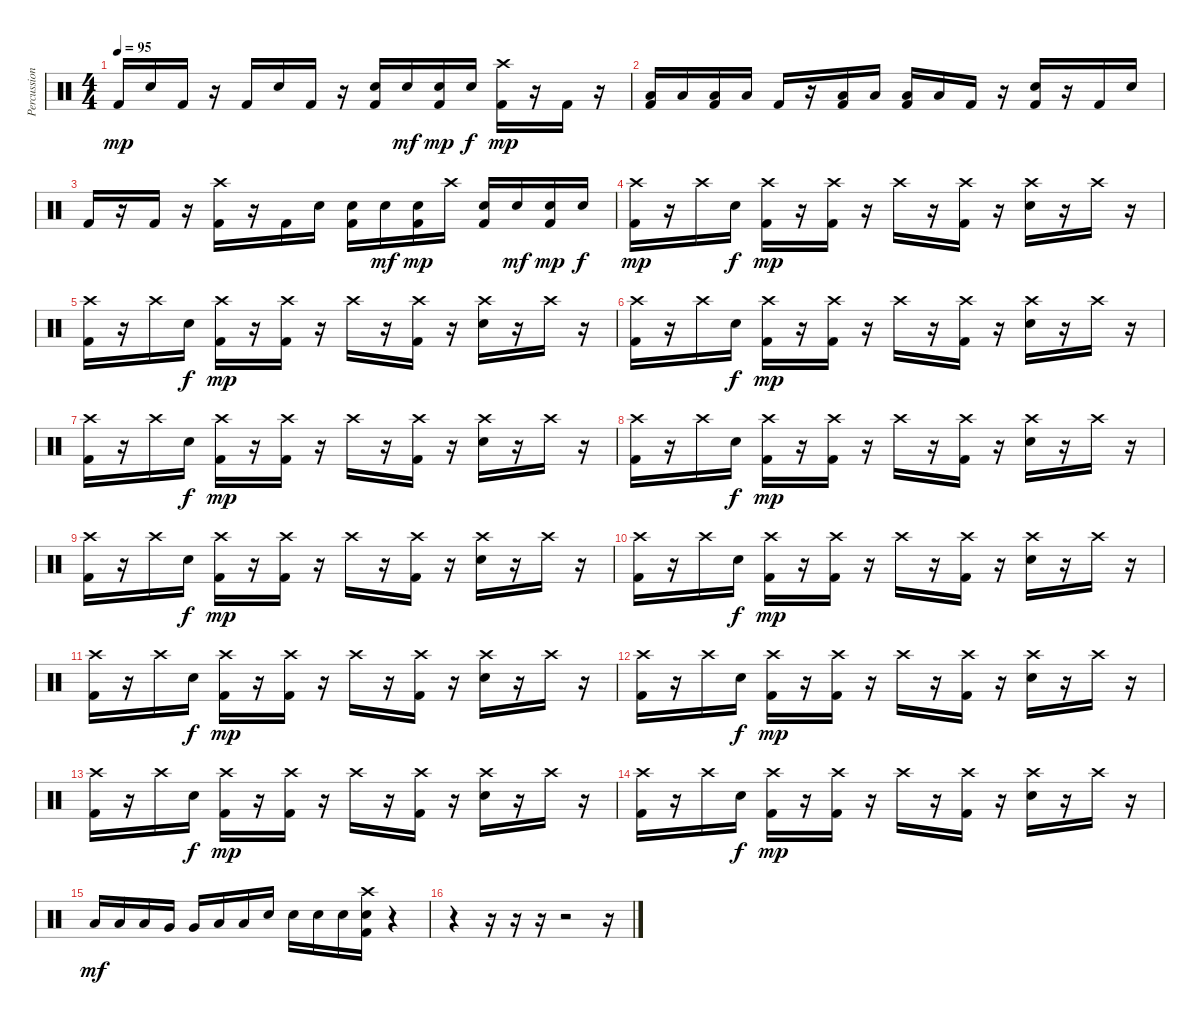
\track ("Percussions" "Percussion") {instrument percussion}
\staff {score}
\articulation defaults
\ts (4 4)
\tempo 95
\clef neutral
\ks c "Kick (hit) 2".16{dy mp} "Snare (hit) 2".16 "Kick (hit) 2".16
r.16 "Kick (hit) 2".16 "Snare (hit) 2".16 "Kick (hit) 2".16 r.16 ("Snare (hit) 2" "Kick (hit) 2").16 "Snare (hit) 2".16{dy mf} ("Snare (hit) 2" "Kick (hit) 2").16{dy mp} "Snare (hit) 2".16{dy f} ("Crash high (hit)" "Kick (hit) 2").16{dy mp} r.16 "Kick (hit) 2".16 r.16 |
("Low Tom (hit)" "Kick (hit) 2").16 "Low Tom (hit)".16 ("Low Tom (hit)" "Kick (hit) 2").16 "Low Tom (hit)".16 "Kick (hit) 2".16 r.16 ("Low Tom (hit)" "Kick (hit) 2").16 "Low Tom (hit)".16 ("Low Tom (hit)" "Kick (hit) 2").16 "Low Tom (hit)".16 "Kick (hit) 2".16 r.16 ("Snare (hit) 2" "Kick (hit) 2").16 r.16 "Kick (hit) 2".16 "Snare (hit) 2".16 |
"Kick (hit) 2".16 r.16 "Kick (hit) 2".16 r.16 ("Crash high (hit)" "Kick (hit) 2").16 r.16 "Kick (hit) 2".16 "Snare (hit) 2".16 ("Snare (hit) 2" "Kick (hit) 2").16 "Snare (hit) 2".16{dy mf} ("Snare (hit) 2" "Kick (hit) 2").16{dy mp} "Crash high (hit)".16 ("Snare (hit) 2" "Kick (hit) 2").16 "Snare (hit) 2".16{dy mf} ("Snare (hit) 2" "Kick (hit) 2").16{dy mp} "Snare (hit) 2".16{dy f} |
("Crash high (hit)" "Kick (hit) 2").16{dy mp} r.16 "Crash high (hit)".16 "Snare (hit) 2".16{dy f} ("Crash high (hit)" "Kick (hit) 2").16{dy mp} r.16 ("Crash high (hit)" "Kick (hit) 2").16 r.16 "Crash high (hit)".16 r.16 ("Crash high (hit)" "Kick (hit) 2").16 r.16 ("Crash high (hit)" "Snare (hit) 2").16 r.16 "Crash high (hit)".16 r.16 |
("Crash high (hit)" "Kick (hit) 2").16 r.16 "Crash high (hit)".16 "Snare (hit) 2".16{dy f} ("Crash high (hit)" "Kick (hit) 2").16{dy mp} r.16 ("Crash high (hit)" "Kick (hit) 2").16 r.16 "Crash high (hit)".16 r.16 ("Crash high (hit)" "Kick (hit) 2").16 r.16 ("Crash high (hit)" "Snare (hit) 2").16 r.16 "Crash high (hit)".16 r.16 |
("Crash high (hit)" "Kick (hit) 2").16 r.16 "Crash high (hit)".16 "Snare (hit) 2".16{dy f} ("Crash high (hit)" "Kick (hit) 2").16{dy mp} r.16 ("Crash high (hit)" "Kick (hit) 2").16 r.16 "Crash high (hit)".16 r.16 ("Crash high (hit)" "Kick (hit) 2").16 r.16 ("Crash high (hit)" "Snare (hit) 2").16 r.16 "Crash high (hit)".16 r.16 |
("Crash high (hit)" "Kick (hit) 2").16 r.16 "Crash high (hit)".16 "Snare (hit) 2".16{dy f} ("Crash high (hit)" "Kick (hit) 2").16{dy mp} r.16 ("Crash high (hit)" "Kick (hit) 2").16 r.16 "Crash high (hit)".16 r.16 ("Crash high (hit)" "Kick (hit) 2").16 r.16 ("Crash high (hit)" "Snare (hit) 2").16 r.16 "Crash high (hit)".16 r.16 |
("Crash high (hit)" "Kick (hit) 2").16 r.16 "Crash high (hit)".16 "Snare (hit) 2".16{dy f} ("Crash high (hit)" "Kick (hit) 2").16{dy mp} r.16 ("Crash high (hit)" "Kick (hit) 2").16 r.16 "Crash high (hit)".16 r.16 ("Crash high (hit)" "Kick (hit) 2").16 r.16 ("Crash high (hit)" "Snare (hit) 2").16 r.16 "Crash high (hit)".16 r.16 |
("Crash high (hit)" "Kick (hit) 2").16 r.16 "Crash high (hit)".16 "Snare (hit) 2".16{dy f} ("Crash high (hit)" "Kick (hit) 2").16{dy mp} r.16 ("Crash high (hit)" "Kick (hit) 2").16 r.16 "Crash high (hit)".16 r.16 ("Crash high (hit)" "Kick (hit) 2").16 r.16 ("Crash high (hit)" "Snare (hit) 2").16 r.16 "Crash high (hit)".16 r.16 |
("Crash high (hit)" "Kick (hit) 2").16 r.16 "Crash high (hit)".16 "Snare (hit) 2".16{dy f} ("Crash high (hit)" "Kick (hit) 2").16{dy mp} r.16 ("Crash high (hit)" "Kick (hit) 2").16 r.16 "Crash high (hit)".16 r.16 ("Crash high (hit)" "Kick (hit) 2").16 r.16 ("Crash high (hit)" "Snare (hit) 2").16 r.16 "Crash high (hit)".16 r.16 |
("Crash high (hit)" "Kick (hit) 2").16 r.16 "Crash high (hit)".16 "Snare (hit) 2".16{dy f} ("Crash high (hit)" "Kick (hit) 2").16{dy mp} r.16 ("Crash high (hit)" "Kick (hit) 2").16 r.16 "Crash high (hit)".16 r.16 ("Crash high (hit)" "Kick (hit) 2").16 r.16 ("Crash high (hit)" "Snare (hit) 2").16 r.16 "Crash high (hit)".16 r.16 |
("Crash high (hit)" "Kick (hit) 2").16 r.16 "Crash high (hit)".16 "Snare (hit) 2".16{dy f} ("Crash high (hit)" "Kick (hit) 2").16{dy mp} r.16 ("Crash high (hit)" "Kick (hit) 2").16 r.16 "Crash high (hit)".16 r.16 ("Crash high (hit)" "Kick (hit) 2").16 r.16 ("Crash high (hit)" "Snare (hit) 2").16 r.16 "Crash high (hit)".16 r.16 |
("Crash high (hit)" "Kick (hit) 2").16 r.16 "Crash high (hit)".16 "Snare (hit) 2".16{dy f} ("Crash high (hit)" "Kick (hit) 2").16{dy mp} r.16 ("Crash high (hit)" "Kick (hit) 2").16 r.16 "Crash high (hit)".16 r.16 ("Crash high (hit)" "Kick (hit) 2").16 r.16 ("Crash high (hit)" "Snare (hit) 2").16 r.16 "Crash high (hit)".16 r.16 |
("Crash high (hit)" "Kick (hit) 2").16 r.16 "Crash high (hit)".16 "Snare (hit) 2".16{dy f} ("Crash high (hit)" "Kick (hit) 2").16{dy mp} r.16 ("Crash high (hit)" "Kick (hit) 2").16 r.16 "Crash high (hit)".16 r.16 ("Crash high (hit)" "Kick (hit) 2").16 r.16 ("Crash high (hit)" "Snare (hit) 2").16 r.16 "Crash high (hit)".16 r.16 |
"Low Tom (hit)".16{dy mf} "Low Tom (hit)".16 "Low Tom (hit)".16 "Very Low Tom (hit)".16 "Very Low Tom (hit)".16 "Low Tom (hit)".16 "Low Tom (hit)".16 "Snare (hit) 2".16 "Snare (hit) 2".16 "Snare (hit) 2".16 "Snare (hit) 2".16 ("Crash high (hit)" "Snare (hit) 2" "Kick (hit) 2").16 r.4 |
r.4 r.16 r.16 r.16 r.2 r.16
